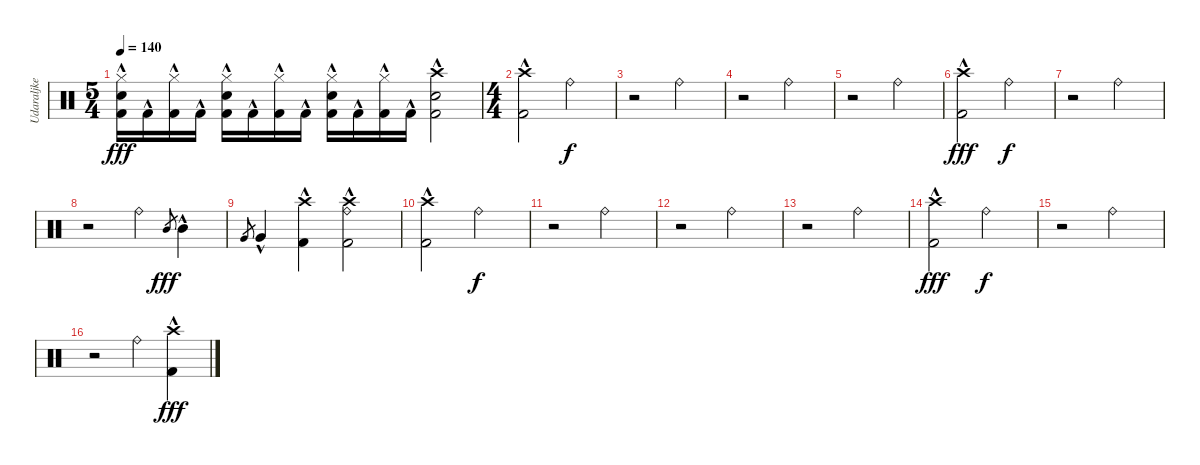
\track ("Udaraljke" "Udaraljke") {instrument percussion}
\staff {score}
\articulation defaults
\ts (5 4)
\tempo 140
\clef neutral
\ks c
("Hi-Hat (closed)" "Snare (hit) 2"{hac} "Kick (hit) 2"{hac}).16{dy fff} "Kick (hit) 2"{hac}.16 ("Hi-Hat (closed)" "Kick (hit) 2"{hac}).16 "Kick (hit) 2"{hac}.16 ("Hi-Hat (closed)" "Snare (hit) 2"{hac} "Kick (hit) 2"{hac}).16 "Kick (hit) 2"{hac}.16 ("Hi-Hat (closed)" "Kick (hit) 2"{hac}).16 "Kick (hit) 2"{hac}.16 ("Hi-Hat (closed)" "Snare (hit) 2"{hac} "Kick (hit) 2"{hac}).16 "Kick (hit) 2"{hac}.16 ("Hi-Hat (closed)" "Kick (hit) 2"{hac}).16 "Kick (hit) 2"{hac}.16 ("Crash high (hit)" "Snare (hit) 2"{hac} "Kick (hit) 2"{hac}).2 |
\ts (4 4)
("Crash high (hit)" "Kick (hit) 2"{hac}).2 "Ride (bell)".2{dy f} |
r.2 "Ride (bell)".2 |
r.2 "Ride (bell)".2 |
r.2 "Ride (bell)".2 |
("Crash high (hit)" "Kick (hit) 2"{hac}).2{dy fff} "Ride (bell)".2{dy f} |
r.2 "Ride (bell)".2 |
r.2 "Ride (bell)".4 "Mid Tom (hit)".8{gr dy fff} "Mid Tom (hit)"{hac}.4 |
"Very Low Tom (hit)".8{gr} "Very Low Tom (hit)"{hac}.4 ("Crash high (hit)" "Kick (hit) 2"{hac}).4 ("Crash high (hit)" "Ride (bell)" "Kick (hit) 2"{hac}).2 |
("Crash high (hit)" "Kick (hit) 2"{hac}).2 "Ride (bell)".2{dy f} |
r.2 "Ride (bell)".2 |
r.2 "Ride (bell)".2 |
r.2 "Ride (bell)".2 |
("Crash high (hit)" "Kick (hit) 2"{hac}).2{dy fff} "Ride (bell)".2{dy f} |
r.2 "Ride (bell)".2 |
r.2 "Ride (bell)".4 ("Crash high (hit)" "Kick (hit) 2"{hac}).4{dy fff}
